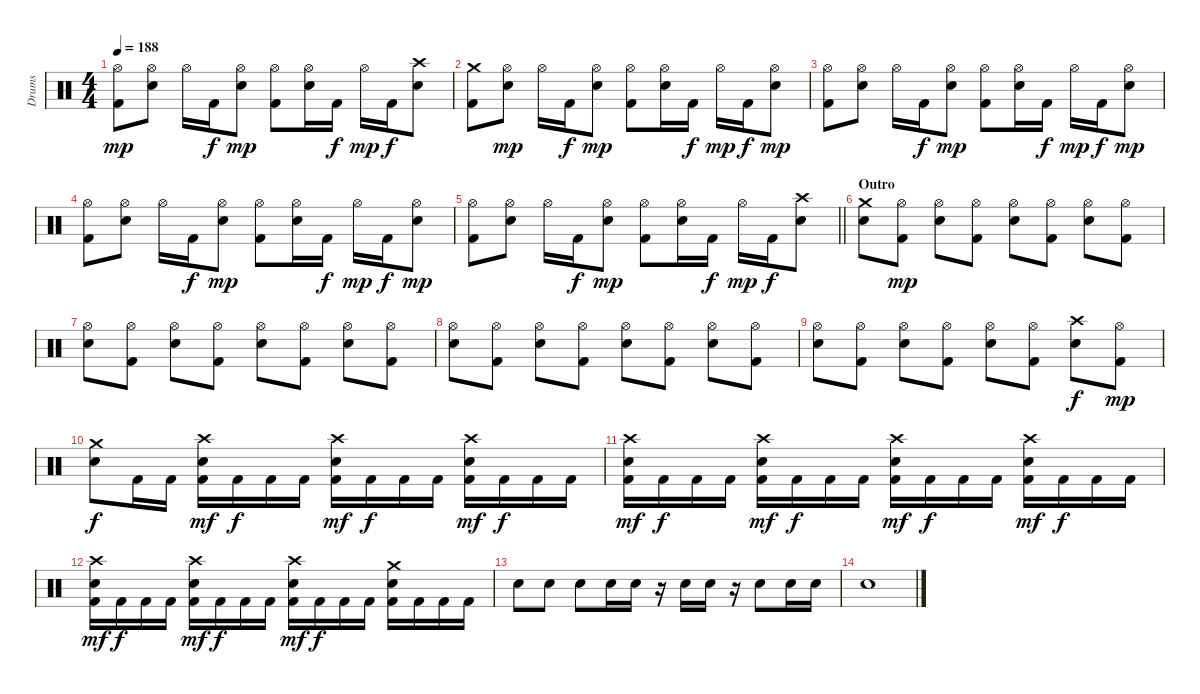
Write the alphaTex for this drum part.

\track ("Drums" "Drums") {instrument percussion}
\staff {score}
\articulation defaults
\ts (4 4)
\tempo 188
\clef neutral
\ks c
("Hi-Hat (open)" "Kick (hit) 2").8{dy mp} ("Hi-Hat (open)" "Snare (hit) 2").8 "Hi-Hat (open)".16 "Kick (hit) 2".16{dy f} ("Hi-Hat (open)" "Snare (hit) 2").8{dy mp} ("Hi-Hat (open)" "Kick (hit) 2").8 ("Hi-Hat (open)" "Snare (hit) 2").16 "Kick (hit) 2".16{dy f} "Hi-Hat (open)".16{dy mp} "Kick (hit) 2".16{dy f} ("Crash high (hit)" "Snare (hit) 2").8 |
("Crash medium (hit)" "Kick (hit) 2").8 ("Hi-Hat (open)" "Snare (hit) 2").8{dy mp} "Hi-Hat (open)".16 "Kick (hit) 2".16{dy f} ("Hi-Hat (open)" "Snare (hit) 2").8{dy mp} ("Hi-Hat (open)" "Kick (hit) 2").8 ("Hi-Hat (open)" "Snare (hit) 2").16 "Kick (hit) 2".16{dy f} "Hi-Hat (open)".16{dy mp} "Kick (hit) 2".16{dy f} ("Hi-Hat (open)" "Snare (hit) 2").8{dy mp} |
("Hi-Hat (open)" "Kick (hit) 2").8 ("Hi-Hat (open)" "Snare (hit) 2").8 "Hi-Hat (open)".16 "Kick (hit) 2".16{dy f} ("Hi-Hat (open)" "Snare (hit) 2").8{dy mp} ("Hi-Hat (open)" "Kick (hit) 2").8 ("Hi-Hat (open)" "Snare (hit) 2").16 "Kick (hit) 2".16{dy f} "Hi-Hat (open)".16{dy mp} "Kick (hit) 2".16{dy f} ("Hi-Hat (open)" "Snare (hit) 2").8{dy mp} |
("Hi-Hat (open)" "Kick (hit) 2").8 ("Hi-Hat (open)" "Snare (hit) 2").8 "Hi-Hat (open)".16 "Kick (hit) 2".16{dy f} ("Hi-Hat (open)" "Snare (hit) 2").8{dy mp} ("Hi-Hat (open)" "Kick (hit) 2").8 ("Hi-Hat (open)" "Snare (hit) 2").16 "Kick (hit) 2".16{dy f} "Hi-Hat (open)".16{dy mp} "Kick (hit) 2".16{dy f} ("Hi-Hat (open)" "Snare (hit) 2").8{dy mp} |
\barLineRight lightlight
("Hi-Hat (open)" "Kick (hit) 2").8 ("Hi-Hat (open)" "Snare (hit) 2").8 "Hi-Hat (open)".16 "Kick (hit) 2".16{dy f} ("Hi-Hat (open)" "Snare (hit) 2").8{dy mp} ("Hi-Hat (open)" "Kick (hit) 2").8 ("Hi-Hat (open)" "Snare (hit) 2").16 "Kick (hit) 2".16{dy f} "Hi-Hat (open)".16{dy mp} "Kick (hit) 2".16{dy f} ("Crash high (hit)" "Snare (hit) 2").8 |
\section ("" "Outro")
("Crash medium (hit)" "Snare (hit) 2").8 ("Hi-Hat (open)" "Kick (hit) 2").8{dy mp} ("Hi-Hat (open)" "Snare (hit) 2").8 ("Hi-Hat (open)" "Kick (hit) 2").8 ("Hi-Hat (open)" "Snare (hit) 2").8 ("Hi-Hat (open)" "Kick (hit) 2").8 ("Hi-Hat (open)" "Snare (hit) 2").8 ("Hi-Hat (open)" "Kick (hit) 2").8 |
("Hi-Hat (open)" "Snare (hit) 2").8 ("Hi-Hat (open)" "Kick (hit) 2").8 ("Hi-Hat (open)" "Snare (hit) 2").8 ("Hi-Hat (open)" "Kick (hit) 2").8 ("Hi-Hat (open)" "Snare (hit) 2").8 ("Hi-Hat (open)" "Kick (hit) 2").8 ("Hi-Hat (open)" "Snare (hit) 2").8 ("Hi-Hat (open)" "Kick (hit) 2").8 |
("Hi-Hat (open)" "Snare (hit) 2").8 ("Hi-Hat (open)" "Kick (hit) 2").8 ("Hi-Hat (open)" "Snare (hit) 2").8 ("Hi-Hat (open)" "Kick (hit) 2").8 ("Hi-Hat (open)" "Snare (hit) 2").8 ("Hi-Hat (open)" "Kick (hit) 2").8 ("Hi-Hat (open)" "Snare (hit) 2").8 ("Hi-Hat (open)" "Kick (hit) 2").8 |
("Hi-Hat (open)" "Snare (hit) 2").8 ("Hi-Hat (open)" "Kick (hit) 2").8 ("Hi-Hat (open)" "Snare (hit) 2").8 ("Hi-Hat (open)" "Kick (hit) 2").8 ("Hi-Hat (open)" "Snare (hit) 2").8 ("Hi-Hat (open)" "Kick (hit) 2").8 ("Crash high (hit)" "Snare (hit) 2").8{dy f} ("Hi-Hat (open)" "Kick (hit) 2").8{dy mp} |
("Crash medium (hit)" "Snare (hit) 2").8{dy f} "Kick (hit) 2".16 "Kick (hit) 2".16 ("Crash high (hit)" "Snare (hit) 2" "Kick (hit) 2").16{dy mf} "Kick (hit) 2".16{dy f} "Kick (hit) 2".16 "Kick (hit) 2".16 ("Crash high (hit)" "Snare (hit) 2" "Kick (hit) 2").16{dy mf} "Kick (hit) 2".16{dy f} "Kick (hit) 2".16 "Kick (hit) 2".16 ("Crash high (hit)" "Snare (hit) 2" "Kick (hit) 2").16{dy mf} "Kick (hit) 2".16{dy f} "Kick (hit) 2".16 "Kick (hit) 2".16 |
("Crash high (hit)" "Snare (hit) 2" "Kick (hit) 2").16{dy mf} "Kick (hit) 2".16{dy f} "Kick (hit) 2".16 "Kick (hit) 2".16 ("Crash high (hit)" "Snare (hit) 2" "Kick (hit) 2").16{dy mf} "Kick (hit) 2".16{dy f} "Kick (hit) 2".16 "Kick (hit) 2".16 ("Crash high (hit)" "Snare (hit) 2" "Kick (hit) 2").16{dy mf} "Kick (hit) 2".16{dy f} "Kick (hit) 2".16 "Kick (hit) 2".16 ("Crash high (hit)" "Snare (hit) 2" "Kick (hit) 2").16{dy mf} "Kick (hit) 2".16{dy f} "Kick (hit) 2".16 "Kick (hit) 2".16 |
("Crash high (hit)" "Snare (hit) 2" "Kick (hit) 2").16{dy mf} "Kick (hit) 2".16{dy f} "Kick (hit) 2".16 "Kick (hit) 2".16 ("Crash high (hit)" "Snare (hit) 2" "Kick (hit) 2").16{dy mf} "Kick (hit) 2".16{dy f} "Kick (hit) 2".16 "Kick (hit) 2".16 ("Crash high (hit)" "Snare (hit) 2" "Kick (hit) 2").16{dy mf} "Kick (hit) 2".16{dy f} "Kick (hit) 2".16 "Kick (hit) 2".16 ("Crash medium (hit)" "Snare (hit) 2" "Kick (hit) 2").16 "Kick (hit) 2".16 "Kick (hit) 2".16 "Kick (hit) 2".16 |
"Snare (hit) 2".8 "Snare (hit) 2".8 "Snare (hit) 2".8 "Snare (hit) 2".16 "Snare (hit) 2".16 r.16 "Snare (hit) 2".16 "Snare (hit) 2".16 r.16 "Snare (hit) 2".8 "Snare (hit) 2".16 "Snare (hit) 2".16 |
"Snare (hit) 2".1
